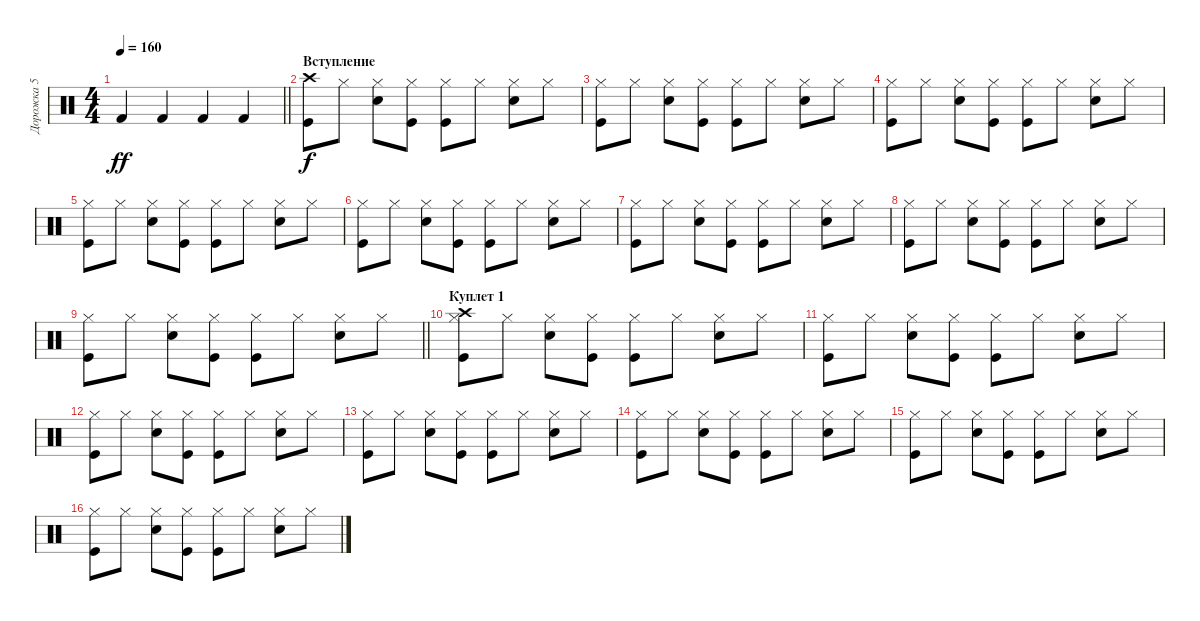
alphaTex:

\track ("Дорожка 5" "Дорожка 5") {solo instrument percussion}
\staff {score}
\articulation defaults
\ts (4 4)
\tempo 160
\clef neutral
\barLineRight lightlight
\ks c "Kick (hit) 2".4{dy ff} "Kick (hit) 2".4 "Kick (hit) 2".4 "Kick (hit) 2".4
|
\section ("" "Вступление")
("Kick (hit)" "Crash high (hit)").8{dy f} "Hi-Hat (closed)".8 ("Hi-Hat (closed)" "Snare (hit) 2").8 ("Hi-Hat (closed)" "Kick (hit)").8 ("Kick (hit)" "Hi-Hat (closed)").8 "Hi-Hat (closed)".8 ("Hi-Hat (closed)" "Snare (hit) 2").8 "Hi-Hat (closed)".8 |
("Kick (hit)" "Hi-Hat (closed)").8 "Hi-Hat (closed)".8 ("Hi-Hat (closed)" "Snare (hit) 2").8 ("Kick (hit)" "Hi-Hat (closed)").8 ("Kick (hit)" "Hi-Hat (closed)").8 "Hi-Hat (closed)".8 ("Hi-Hat (closed)" "Snare (hit) 2").8 "Hi-Hat (closed)".8 |
("Kick (hit)" "Hi-Hat (closed)").8 "Hi-Hat (closed)".8 ("Hi-Hat (closed)" "Snare (hit) 2").8 ("Kick (hit)" "Hi-Hat (closed)").8 ("Kick (hit)" "Hi-Hat (closed)").8 "Hi-Hat (closed)".8 ("Hi-Hat (closed)" "Snare (hit) 2").8 "Hi-Hat (closed)".8 |
("Kick (hit)" "Hi-Hat (closed)").8 "Hi-Hat (closed)".8 ("Hi-Hat (closed)" "Snare (hit) 2").8 ("Kick (hit)" "Hi-Hat (closed)").8 ("Kick (hit)" "Hi-Hat (closed)").8 "Hi-Hat (closed)".8 ("Hi-Hat (closed)" "Snare (hit) 2").8 "Hi-Hat (closed)".8 |
("Kick (hit)" "Hi-Hat (closed)").8 "Hi-Hat (closed)".8 ("Hi-Hat (closed)" "Snare (hit) 2").8 ("Kick (hit)" "Hi-Hat (closed)").8 ("Kick (hit)" "Hi-Hat (closed)").8 "Hi-Hat (closed)".8 ("Hi-Hat (closed)" "Snare (hit) 2").8 "Hi-Hat (closed)".8 |
("Kick (hit)" "Hi-Hat (closed)").8 "Hi-Hat (closed)".8 ("Hi-Hat (closed)" "Snare (hit) 2").8 ("Kick (hit)" "Hi-Hat (closed)").8 ("Kick (hit)" "Hi-Hat (closed)").8 "Hi-Hat (closed)".8 ("Hi-Hat (closed)" "Snare (hit) 2").8 "Hi-Hat (closed)".8 |
("Kick (hit)" "Hi-Hat (closed)").8 "Hi-Hat (closed)".8 ("Hi-Hat (closed)" "Snare (hit) 2").8 ("Kick (hit)" "Hi-Hat (closed)").8 ("Kick (hit)" "Hi-Hat (closed)").8 "Hi-Hat (closed)".8 ("Hi-Hat (closed)" "Snare (hit) 2").8 "Hi-Hat (closed)".8 |
\barLineRight lightlight
("Kick (hit)" "Hi-Hat (closed)").8 "Hi-Hat (closed)".8 ("Hi-Hat (closed)" "Snare (hit) 2").8 ("Kick (hit)" "Hi-Hat (closed)").8 ("Kick (hit)" "Hi-Hat (closed)").8 "Hi-Hat (closed)".8 ("Hi-Hat (closed)" "Snare (hit) 2").8 "Hi-Hat (closed)".8 |
\section ("" "Куплет 1")
("Kick (hit)" "Hi-Hat (closed)" "Crash high (hit)").8 "Hi-Hat (closed)".8 ("Hi-Hat (closed)" "Snare (hit) 2").8 ("Kick (hit)" "Hi-Hat (closed)").8 ("Kick (hit)" "Hi-Hat (closed)").8 "Hi-Hat (closed)".8 ("Hi-Hat (closed)" "Snare (hit) 2").8 "Hi-Hat (closed)".8 |
("Kick (hit)" "Hi-Hat (closed)").8 "Hi-Hat (closed)".8 ("Hi-Hat (closed)" "Snare (hit) 2").8 ("Kick (hit)" "Hi-Hat (closed)").8 ("Kick (hit)" "Hi-Hat (closed)").8 "Hi-Hat (closed)".8 ("Hi-Hat (closed)" "Snare (hit) 2").8 "Hi-Hat (closed)".8 |
("Kick (hit)" "Hi-Hat (closed)").8 "Hi-Hat (closed)".8 ("Hi-Hat (closed)" "Snare (hit) 2").8 ("Kick (hit)" "Hi-Hat (closed)").8 ("Kick (hit)" "Hi-Hat (closed)").8 "Hi-Hat (closed)".8 ("Hi-Hat (closed)" "Snare (hit) 2").8 "Hi-Hat (closed)".8 |
("Kick (hit)" "Hi-Hat (closed)").8 "Hi-Hat (closed)".8 ("Hi-Hat (closed)" "Snare (hit) 2").8 ("Kick (hit)" "Hi-Hat (closed)").8 ("Kick (hit)" "Hi-Hat (closed)").8 "Hi-Hat (closed)".8 ("Hi-Hat (closed)" "Snare (hit) 2").8 "Hi-Hat (closed)".8 |
("Kick (hit)" "Hi-Hat (closed)").8 "Hi-Hat (closed)".8 ("Hi-Hat (closed)" "Snare (hit) 2").8 ("Kick (hit)" "Hi-Hat (closed)").8 ("Kick (hit)" "Hi-Hat (closed)").8 "Hi-Hat (closed)".8 ("Hi-Hat (closed)" "Snare (hit) 2").8 "Hi-Hat (closed)".8 |
("Kick (hit)" "Hi-Hat (closed)").8 "Hi-Hat (closed)".8 ("Hi-Hat (closed)" "Snare (hit) 2").8 ("Kick (hit)" "Hi-Hat (closed)").8 ("Kick (hit)" "Hi-Hat (closed)").8 "Hi-Hat (closed)".8 ("Hi-Hat (closed)" "Snare (hit) 2").8 "Hi-Hat (closed)".8 |
("Kick (hit)" "Hi-Hat (closed)").8 "Hi-Hat (closed)".8 ("Hi-Hat (closed)" "Snare (hit) 2").8 ("Kick (hit)" "Hi-Hat (closed)").8 ("Kick (hit)" "Hi-Hat (closed)").8 "Hi-Hat (closed)".8 ("Hi-Hat (closed)" "Snare (hit) 2").8 "Hi-Hat (closed)".8
